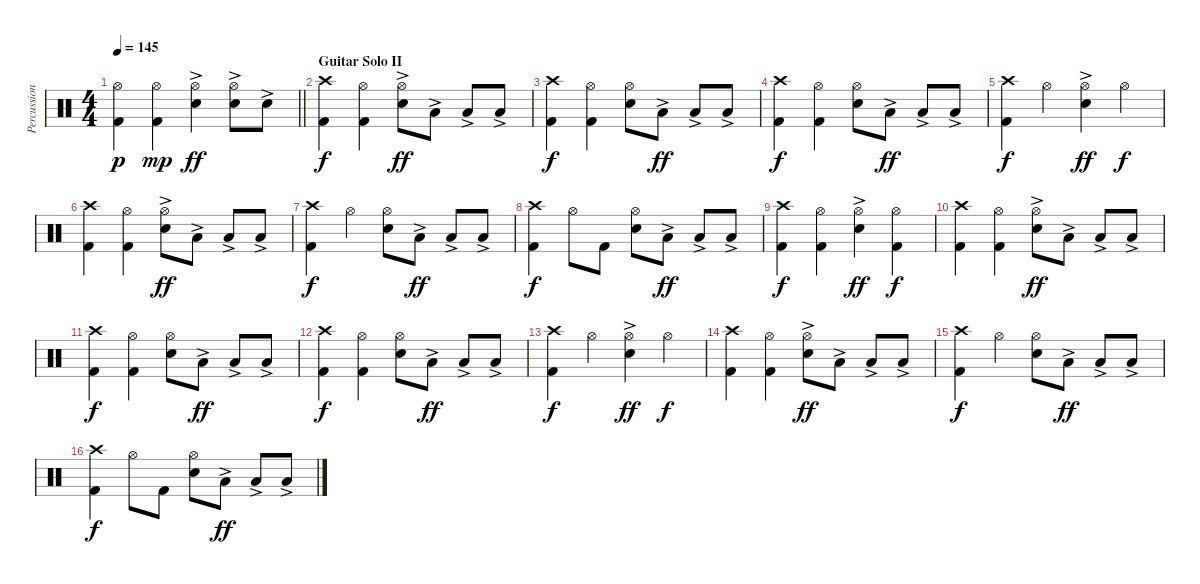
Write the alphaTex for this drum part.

\track ("Percussion" "Percussion") {instrument percussion}
\staff {score}
\articulation defaults
\ts (4 4)
\tempo 145
\clef neutral
\barLineRight lightlight
\ks c
("Hi-Hat (open)" "Kick (hit) 2").4{dy p} ("Hi-Hat (open)" "Kick (hit) 2").4{dy mp} ("Hi-Hat (open)" "Electric Snare (hit)"{ac}).4{dy ff} ("Hi-Hat (open)" "Electric Snare (hit)"{ac}).8 "Electric Snare (hit)"{ac}.8 |
\section ("" "Guitar Solo II")
("Crash high (hit)" "Kick (hit) 2").4{dy f} ("Hi-Hat (open)" "Kick (hit) 2").4 ("Hi-Hat (open)" "Electric Snare (hit)"{ac}).8{dy ff} "Low Tom (hit)"{ac}.8 "Low Tom (hit)"{ac}.8 "Low Tom (hit)"{ac}.8 |
("Crash high (hit)" "Kick (hit) 2").4{dy f} ("Hi-Hat (open)" "Kick (hit) 2").4 ("Hi-Hat (open)" "Electric Snare (hit)").8 "Low Tom (hit)"{ac}.8{dy ff} "Low Tom (hit)"{ac}.8 "Low Tom (hit)"{ac}.8 |
("Crash high (hit)" "Kick (hit) 2").4{dy f} ("Hi-Hat (open)" "Kick (hit) 2").4 ("Hi-Hat (open)" "Electric Snare (hit)").8 "Low Tom (hit)"{ac}.8{dy ff} "Low Tom (hit)"{ac}.8 "Low Tom (hit)"{ac}.8 |
("Crash high (hit)" "Kick (hit) 2").4{dy f} "Hi-Hat (open)".4 ("Hi-Hat (open)" "Electric Snare (hit)"{ac}).4{dy ff} "Hi-Hat (open)".4{dy f} |
("Crash high (hit)" "Kick (hit) 2").4 ("Hi-Hat (open)" "Kick (hit) 2").4 ("Hi-Hat (open)" "Electric Snare (hit)"{ac}).8{dy ff} "Low Tom (hit)"{ac}.8 "Low Tom (hit)"{ac}.8 "Low Tom (hit)"{ac}.8 |
("Crash high (hit)" "Kick (hit) 2").4{dy f} "Hi-Hat (open)".4 ("Hi-Hat (open)" "Electric Snare (hit)").8 "Low Tom (hit)"{ac}.8{dy ff} "Low Tom (hit)"{ac}.8 "Low Tom (hit)"{ac}.8 |
("Crash high (hit)" "Kick (hit) 2").4{dy f} "Hi-Hat (open)".8 "Kick (hit) 2".8 ("Hi-Hat (open)" "Electric Snare (hit)").8 "Low Tom (hit)"{ac}.8{dy ff} "Low Tom (hit)"{ac}.8 "Low Tom (hit)"{ac}.8 |
("Crash high (hit)" "Kick (hit) 2").4{dy f} ("Hi-Hat (open)" "Kick (hit) 2").4 ("Hi-Hat (open)" "Electric Snare (hit)"{ac}).4{dy ff} ("Hi-Hat (open)" "Kick (hit) 2").4{dy f} |
("Crash high (hit)" "Kick (hit) 2").4 ("Hi-Hat (open)" "Kick (hit) 2").4 ("Hi-Hat (open)" "Electric Snare (hit)"{ac}).8{dy ff} "Low Tom (hit)"{ac}.8 "Low Tom (hit)"{ac}.8 "Low Tom (hit)"{ac}.8 |
("Crash high (hit)" "Kick (hit) 2").4{dy f} ("Hi-Hat (open)" "Kick (hit) 2").4 ("Hi-Hat (open)" "Electric Snare (hit)").8 "Low Tom (hit)"{ac}.8{dy ff} "Low Tom (hit)"{ac}.8 "Low Tom (hit)"{ac}.8 |
("Crash high (hit)" "Kick (hit) 2").4{dy f} ("Hi-Hat (open)" "Kick (hit) 2").4 ("Hi-Hat (open)" "Electric Snare (hit)").8 "Low Tom (hit)"{ac}.8{dy ff} "Low Tom (hit)"{ac}.8 "Low Tom (hit)"{ac}.8 |
("Crash high (hit)" "Kick (hit) 2").4{dy f} "Hi-Hat (open)".4 ("Hi-Hat (open)" "Electric Snare (hit)"{ac}).4{dy ff} "Hi-Hat (open)".4{dy f} |
("Crash high (hit)" "Kick (hit) 2").4 ("Hi-Hat (open)" "Kick (hit) 2").4 ("Hi-Hat (open)" "Electric Snare (hit)"{ac}).8{dy ff} "Low Tom (hit)"{ac}.8 "Low Tom (hit)"{ac}.8 "Low Tom (hit)"{ac}.8 |
("Crash high (hit)" "Kick (hit) 2").4{dy f} "Hi-Hat (open)".4 ("Hi-Hat (open)" "Electric Snare (hit)").8 "Low Tom (hit)"{ac}.8{dy ff} "Low Tom (hit)"{ac}.8 "Low Tom (hit)"{ac}.8 |
("Crash high (hit)" "Kick (hit) 2").4{dy f} "Hi-Hat (open)".8 "Kick (hit) 2".8 ("Hi-Hat (open)" "Electric Snare (hit)").8 "Low Tom (hit)"{ac}.8{dy ff} "Low Tom (hit)"{ac}.8 "Low Tom (hit)"{ac}.8
